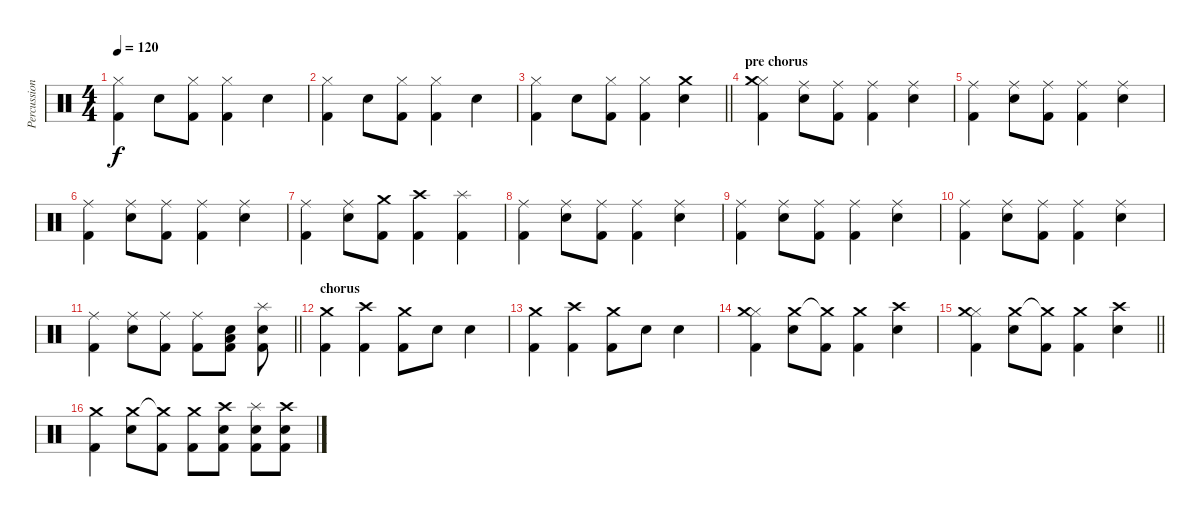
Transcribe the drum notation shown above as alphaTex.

\track ("Percussion" "Percussion") {instrument percussion}
\staff {score}
\articulation defaults
\ts (4 4)
\tempo 120
\clef neutral
\ks c
("Kick (hit) 2" "Hi-Hat (closed)").4{dy f} "Electric Snare (hit)".8 ("Kick (hit) 2" "Hi-Hat (closed)").8 ("Kick (hit) 2" "Hi-Hat (closed)").4 "Electric Snare (hit)".4 |
("Kick (hit) 2" "Hi-Hat (closed)").4 "Electric Snare (hit)".8 ("Kick (hit) 2" "Hi-Hat (closed)").8 ("Kick (hit) 2" "Hi-Hat (closed)").4 "Electric Snare (hit)".4 |
\barLineRight lightlight
("Kick (hit) 2" "Hi-Hat (closed)").4 "Electric Snare (hit)".8 ("Kick (hit) 2" "Hi-Hat (closed)").8 ("Kick (hit) 2" "Hi-Hat (closed)").4 ("Electric Snare (hit)" "Crash medium (hit)").4 |
\section ("" "pre chorus")
("Kick (hit) 2" "Hi-Hat (closed)" "Crash medium (hit)").4 ("Electric Snare (hit)" "Ride (middle)").8 ("Kick (hit) 2" "Ride (middle)").8 ("Kick (hit) 2" "Ride (middle)").4 ("Electric Snare (hit)" "Ride (middle)").4 |
("Kick (hit) 2" "Ride (middle)").4 ("Electric Snare (hit)" "Ride (middle)").8 ("Kick (hit) 2" "Ride (middle)").8 ("Kick (hit) 2" "Ride (middle)").4 ("Electric Snare (hit)" "Ride (middle)").4 |
("Kick (hit) 2" "Ride (middle)").4 ("Electric Snare (hit)" "Ride (middle)").8 ("Kick (hit) 2" "Ride (middle)").8 ("Kick (hit) 2" "Ride (middle)").4 ("Electric Snare (hit)" "Ride (middle)").4 |
("Kick (hit) 2" "Ride (middle)").4 ("Electric Snare (hit)" "Ride (middle)").8 ("Kick (hit) 2" "Crash medium (hit)").8 ("Kick (hit) 2" "Crash high (hit)").4 ("Kick (hit) 2" "Splash (hit)").4 |
("Kick (hit) 2" "Ride (middle)").4 ("Electric Snare (hit)" "Ride (middle)").8 ("Kick (hit) 2" "Ride (middle)").8 ("Kick (hit) 2" "Ride (middle)").4 ("Electric Snare (hit)" "Ride (middle)").4 |
("Kick (hit) 2" "Ride (middle)").4 ("Electric Snare (hit)" "Ride (middle)").8 ("Kick (hit) 2" "Ride (middle)").8 ("Kick (hit) 2" "Ride (middle)").4 ("Electric Snare (hit)" "Ride (middle)").4 |
("Kick (hit) 2" "Ride (middle)").4 ("Electric Snare (hit)" "Ride (middle)").8 ("Kick (hit) 2" "Ride (middle)").8 ("Kick (hit) 2" "Ride (middle)").4 ("Electric Snare (hit)" "Ride (middle)").4 |
\barLineRight lightlight
("Kick (hit) 2" "Ride (middle)").4 ("Electric Snare (hit)" "Ride (middle)").8 ("Kick (hit) 2" "Ride (middle)").8 ("Kick (hit) 2" "Ride (middle)").8 ("Kick (hit) 2" "Electric Snare (hit)" "Low Floor Tom (hit)").8 ("Kick (hit) 2" "Electric Snare (hit)" "Splash (hit)").8 |
\section ("" "chorus")
("Kick (hit) 2" "Crash medium (hit)").4 ("Kick (hit) 2" "Crash high (hit)").4 ("Kick (hit) 2" "Crash medium (hit)").8 "Electric Snare (hit)".8 "Electric Snare (hit)".4 |
("Kick (hit) 2" "Crash medium (hit)").4 ("Kick (hit) 2" "Crash high (hit)").4 ("Kick (hit) 2" "Crash medium (hit)").8 "Electric Snare (hit)".8 "Electric Snare (hit)".4 |
("Kick (hit) 2" "Hi-Hat (closed)" "Crash medium (hit)").4 ("Electric Snare (hit)" "Crash medium (hit)").8 ("Kick (hit) 2" "Crash medium (hit)"{t}).8 ("Kick (hit) 2" "Crash medium (hit)").4 ("Electric Snare (hit)" "Crash high (hit)").4 |
\barLineRight lightlight
("Kick (hit) 2" "Hi-Hat (closed)" "Crash medium (hit)").4 ("Electric Snare (hit)" "Crash medium (hit)").8 ("Kick (hit) 2" "Crash medium (hit)"{t}).8 ("Kick (hit) 2" "Crash medium (hit)").4 ("Electric Snare (hit)" "Crash high (hit)").4 |
("Kick (hit) 2" "Crash medium (hit)").4 ("Electric Snare (hit)" "Crash medium (hit)").8 ("Kick (hit) 2" "Crash medium (hit)"{t}).8 ("Kick (hit) 2" "Crash medium (hit)").8 ("Kick (hit) 2" "Electric Snare (hit)" "Crash high (hit)").8 ("Kick (hit) 2" "Electric Snare (hit)" "Splash (hit)").8 ("Kick (hit) 2" "Electric Snare (hit)" "Crash high (hit)").8
